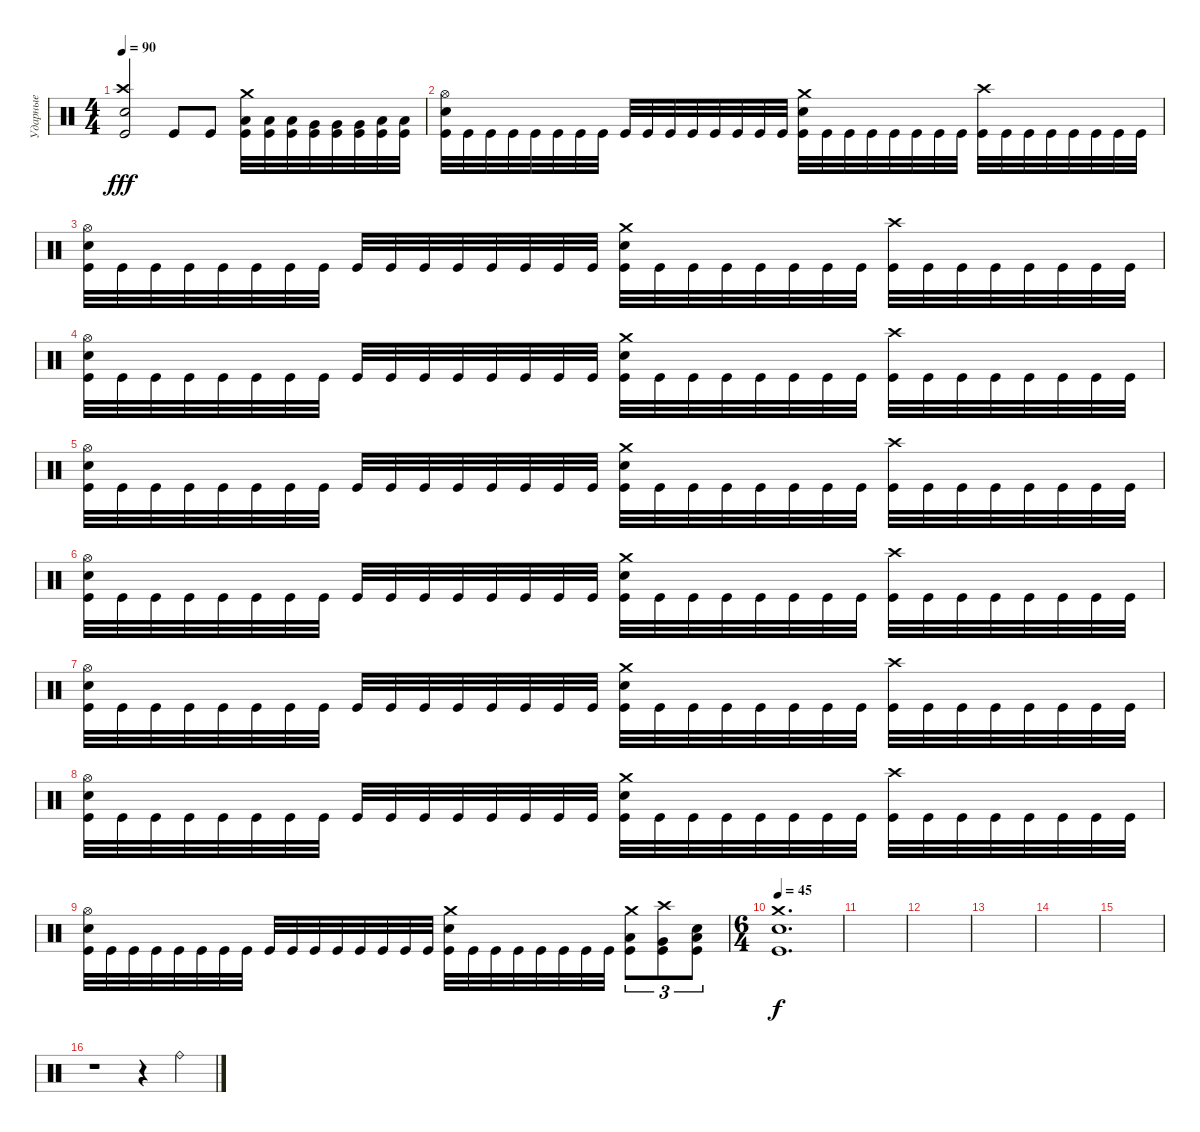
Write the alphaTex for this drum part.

\track ("Ударные" "Ударные") {instrument percussion}
\staff {score}
\articulation defaults
\ts (4 4)
\tempo 90
\clef neutral
\ks c
("Kick (hit)" "Crash high (hit)" "Snare (hit) 2").2{dy fff} "Kick (hit)".8 "Kick (hit)".8 ("Kick (hit)" "Low Tom (hit)" "Crash medium (hit)").32 ("Kick (hit)" "Low Tom (hit)").32 ("Kick (hit)" "Low Tom (hit)").32 ("Kick (hit)" "Very Low Tom (hit)").32 ("Kick (hit)" "Very Low Tom (hit)").32 ("Kick (hit)" "Very Low Tom (hit)").32 ("Kick (hit)" "Low Floor Tom (hit)").32 ("Kick (hit)" "Low Floor Tom (hit)").32 |
("Kick (hit)" "Snare (hit) 2" "Hi-Hat (open)").32 "Kick (hit)".32 "Kick (hit)".32 "Kick (hit)".32 "Kick (hit)".32 "Kick (hit)".32 "Kick (hit)".32 "Kick (hit)".32 "Kick (hit)".32 "Kick (hit)".32 "Kick (hit)".32 "Kick (hit)".32 "Kick (hit)".32 "Kick (hit)".32 "Kick (hit)".32 "Kick (hit)".32 ("Kick (hit)" "Crash medium (hit)" "Snare (hit) 2").32 "Kick (hit)".32 "Kick (hit)".32 "Kick (hit)".32 "Kick (hit)".32 "Kick (hit)".32 "Kick (hit)".32 "Kick (hit)".32 ("Kick (hit)" "Crash high (hit)").32 "Kick (hit)".32 "Kick (hit)".32 "Kick (hit)".32 "Kick (hit)".32 "Kick (hit)".32 "Kick (hit)".32 "Kick (hit)".32 |
("Kick (hit)" "Snare (hit) 2" "Hi-Hat (open)").32 "Kick (hit)".32 "Kick (hit)".32 "Kick (hit)".32 "Kick (hit)".32 "Kick (hit)".32 "Kick (hit)".32 "Kick (hit)".32 "Kick (hit)".32 "Kick (hit)".32 "Kick (hit)".32 "Kick (hit)".32 "Kick (hit)".32 "Kick (hit)".32 "Kick (hit)".32 "Kick (hit)".32 ("Kick (hit)" "Crash medium (hit)" "Snare (hit) 2").32 "Kick (hit)".32 "Kick (hit)".32 "Kick (hit)".32 "Kick (hit)".32 "Kick (hit)".32 "Kick (hit)".32 "Kick (hit)".32 ("Kick (hit)" "Crash high (hit)").32 "Kick (hit)".32 "Kick (hit)".32 "Kick (hit)".32 "Kick (hit)".32 "Kick (hit)".32 "Kick (hit)".32 "Kick (hit)".32 |
("Kick (hit)" "Snare (hit) 2" "Hi-Hat (open)").32 "Kick (hit)".32 "Kick (hit)".32 "Kick (hit)".32 "Kick (hit)".32 "Kick (hit)".32 "Kick (hit)".32 "Kick (hit)".32 "Kick (hit)".32 "Kick (hit)".32 "Kick (hit)".32 "Kick (hit)".32 "Kick (hit)".32 "Kick (hit)".32 "Kick (hit)".32 "Kick (hit)".32 ("Kick (hit)" "Crash medium (hit)" "Snare (hit) 2").32 "Kick (hit)".32 "Kick (hit)".32 "Kick (hit)".32 "Kick (hit)".32 "Kick (hit)".32 "Kick (hit)".32 "Kick (hit)".32 ("Kick (hit)" "Crash high (hit)").32 "Kick (hit)".32 "Kick (hit)".32 "Kick (hit)".32 "Kick (hit)".32 "Kick (hit)".32 "Kick (hit)".32 "Kick (hit)".32 |
("Kick (hit)" "Snare (hit) 2" "Hi-Hat (open)").32 "Kick (hit)".32 "Kick (hit)".32 "Kick (hit)".32 "Kick (hit)".32 "Kick (hit)".32 "Kick (hit)".32 "Kick (hit)".32 "Kick (hit)".32 "Kick (hit)".32 "Kick (hit)".32 "Kick (hit)".32 "Kick (hit)".32 "Kick (hit)".32 "Kick (hit)".32 "Kick (hit)".32 ("Kick (hit)" "Crash medium (hit)" "Snare (hit) 2").32 "Kick (hit)".32 "Kick (hit)".32 "Kick (hit)".32 "Kick (hit)".32 "Kick (hit)".32 "Kick (hit)".32 "Kick (hit)".32 ("Kick (hit)" "Crash high (hit)").32 "Kick (hit)".32 "Kick (hit)".32 "Kick (hit)".32 "Kick (hit)".32 "Kick (hit)".32 "Kick (hit)".32 "Kick (hit)".32 |
("Kick (hit)" "Snare (hit) 2" "Hi-Hat (open)").32 "Kick (hit)".32 "Kick (hit)".32 "Kick (hit)".32 "Kick (hit)".32 "Kick (hit)".32 "Kick (hit)".32 "Kick (hit)".32 "Kick (hit)".32 "Kick (hit)".32 "Kick (hit)".32 "Kick (hit)".32 "Kick (hit)".32 "Kick (hit)".32 "Kick (hit)".32 "Kick (hit)".32 ("Kick (hit)" "Crash medium (hit)" "Snare (hit) 2").32 "Kick (hit)".32 "Kick (hit)".32 "Kick (hit)".32 "Kick (hit)".32 "Kick (hit)".32 "Kick (hit)".32 "Kick (hit)".32 ("Kick (hit)" "Crash high (hit)").32 "Kick (hit)".32 "Kick (hit)".32 "Kick (hit)".32 "Kick (hit)".32 "Kick (hit)".32 "Kick (hit)".32 "Kick (hit)".32 |
("Kick (hit)" "Snare (hit) 2" "Hi-Hat (open)").32 "Kick (hit)".32 "Kick (hit)".32 "Kick (hit)".32 "Kick (hit)".32 "Kick (hit)".32 "Kick (hit)".32 "Kick (hit)".32 "Kick (hit)".32 "Kick (hit)".32 "Kick (hit)".32 "Kick (hit)".32 "Kick (hit)".32 "Kick (hit)".32 "Kick (hit)".32 "Kick (hit)".32 ("Kick (hit)" "Crash medium (hit)" "Snare (hit) 2").32 "Kick (hit)".32 "Kick (hit)".32 "Kick (hit)".32 "Kick (hit)".32 "Kick (hit)".32 "Kick (hit)".32 "Kick (hit)".32 ("Kick (hit)" "Crash high (hit)").32 "Kick (hit)".32 "Kick (hit)".32 "Kick (hit)".32 "Kick (hit)".32 "Kick (hit)".32 "Kick (hit)".32 "Kick (hit)".32 |
("Kick (hit)" "Snare (hit) 2" "Hi-Hat (open)").32 "Kick (hit)".32 "Kick (hit)".32 "Kick (hit)".32 "Kick (hit)".32 "Kick (hit)".32 "Kick (hit)".32 "Kick (hit)".32 "Kick (hit)".32 "Kick (hit)".32 "Kick (hit)".32 "Kick (hit)".32 "Kick (hit)".32 "Kick (hit)".32 "Kick (hit)".32 "Kick (hit)".32 ("Kick (hit)" "Crash medium (hit)" "Snare (hit) 2").32 "Kick (hit)".32 "Kick (hit)".32 "Kick (hit)".32 "Kick (hit)".32 "Kick (hit)".32 "Kick (hit)".32 "Kick (hit)".32 ("Kick (hit)" "Crash high (hit)").32 "Kick (hit)".32 "Kick (hit)".32 "Kick (hit)".32 "Kick (hit)".32 "Kick (hit)".32 "Kick (hit)".32 "Kick (hit)".32 |
("Kick (hit)" "Snare (hit) 2" "Hi-Hat (open)").32 "Kick (hit)".32 "Kick (hit)".32 "Kick (hit)".32 "Kick (hit)".32 "Kick (hit)".32 "Kick (hit)".32 "Kick (hit)".32 "Kick (hit)".32 "Kick (hit)".32 "Kick (hit)".32 "Kick (hit)".32 "Kick (hit)".32 "Kick (hit)".32 "Kick (hit)".32 "Kick (hit)".32 ("Kick (hit)" "Crash medium (hit)" "Snare (hit) 2").32 "Kick (hit)".32 "Kick (hit)".32 "Kick (hit)".32 "Kick (hit)".32 "Kick (hit)".32 "Kick (hit)".32 "Kick (hit)".32 ("Kick (hit)" "Low Tom (hit)" "Crash medium (hit)").8{tu (3 2)} ("Kick (hit)" "Very Low Tom (hit)" "Crash high (hit)").8{tu (3 2)} ("Kick (hit)" "Low Floor Tom (hit)" "Snare (hit) 2").8{tu (3 2)} |
\ts (6 4)
\tempo 45
("Kick (hit)" "Snare (hit) 2" "Crash medium (hit)").1{d dy f} |
|
|
|
|
|
r.1 r.4 "Ride (bell)".4
